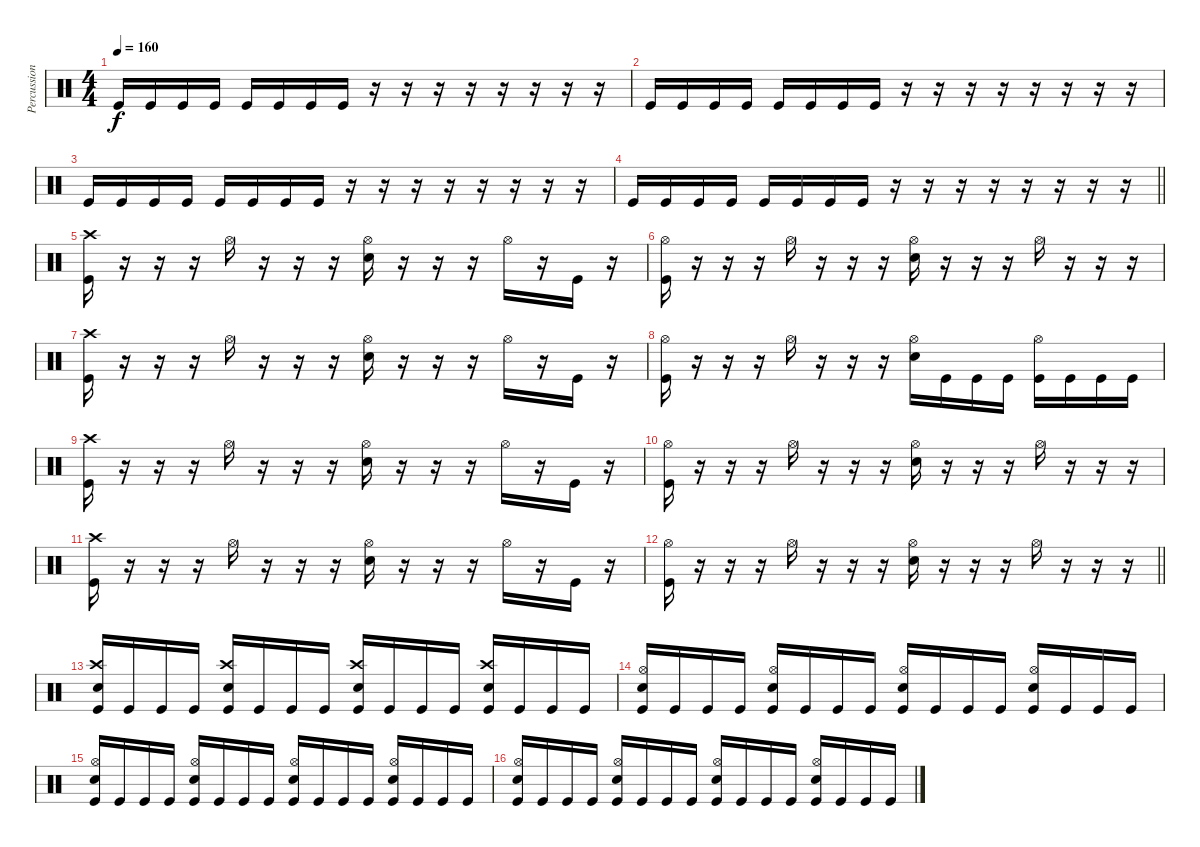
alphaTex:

\track ("Percussion" "Percussion") {instrument percussion}
\staff {score}
\articulation defaults
\ts (4 4)
\tempo 160
\clef neutral
\ks c "Kick (hit)".16{dy f} "Kick (hit)".16 "Kick (hit)".16 "Kick (hit)".16 "Kick (hit)".16 "Kick (hit)".16 "Kick (hit)".16 "Kick (hit)".16
r.16 r.16 r.16 r.16 r.16 r.16 r.16 r.16 |
"Kick (hit)".16 "Kick (hit)".16 "Kick (hit)".16 "Kick (hit)".16 "Kick (hit)".16 "Kick (hit)".16 "Kick (hit)".16 "Kick (hit)".16 r.16 r.16 r.16 r.16 r.16 r.16 r.16 r.16 |
"Kick (hit)".16 "Kick (hit)".16 "Kick (hit)".16 "Kick (hit)".16 "Kick (hit)".16 "Kick (hit)".16 "Kick (hit)".16 "Kick (hit)".16 r.16 r.16 r.16 r.16 r.16 r.16 r.16 r.16 |
\barLineRight lightlight "Kick (hit)".16 "Kick (hit)".16 "Kick (hit)".16 "Kick (hit)".16 "Kick (hit)".16 "Kick (hit)".16 "Kick (hit)".16 "Kick (hit)".16
r.16 r.16 r.16 r.16 r.16 r.16 r.16 r.16 |
\section ("" "")
("Crash high (hit)" "Kick (hit)").16 r.16 r.16 r.16 "Hi-Hat (open)".16 r.16 r.16 r.16 ("Hi-Hat (open)" "Snare (hit) 2").16 r.16 r.16 r.16 "Hi-Hat (open)".16 r.16 "Kick (hit)".16 r.16 |
("Hi-Hat (open)" "Kick (hit)").16 r.16 r.16 r.16 "Hi-Hat (open)".16 r.16 r.16 r.16 ("Hi-Hat (open)" "Snare (hit) 2").16 r.16 r.16 r.16 "Hi-Hat (open)".16 r.16 r.16 r.16 |
("Crash high (hit)" "Kick (hit)").16 r.16 r.16 r.16 "Hi-Hat (open)".16 r.16 r.16 r.16 ("Hi-Hat (open)" "Snare (hit) 2").16 r.16 r.16 r.16 "Hi-Hat (open)".16 r.16 "Kick (hit)".16 r.16 |
("Hi-Hat (open)" "Kick (hit)").16 r.16 r.16 r.16 "Hi-Hat (open)".16 r.16 r.16 r.16 ("Hi-Hat (open)" "Snare (hit) 2").16 "Kick (hit)".16 "Kick (hit)".16 "Kick (hit)".16 ("Hi-Hat (open)" "Kick (hit)").16 "Kick (hit)".16 "Kick (hit)".16 "Kick (hit)".16 |
("Crash high (hit)" "Kick (hit)").16 r.16 r.16 r.16 "Hi-Hat (open)".16 r.16 r.16 r.16 ("Hi-Hat (open)" "Snare (hit) 2").16 r.16 r.16 r.16 "Hi-Hat (open)".16 r.16 "Kick (hit)".16 r.16 |
("Hi-Hat (open)" "Kick (hit)").16 r.16 r.16 r.16 "Hi-Hat (open)".16 r.16 r.16 r.16 ("Hi-Hat (open)" "Snare (hit) 2").16 r.16 r.16 r.16 "Hi-Hat (open)".16 r.16 r.16 r.16 |
("Crash high (hit)" "Kick (hit)").16 r.16 r.16 r.16 "Hi-Hat (open)".16 r.16 r.16 r.16 ("Hi-Hat (open)" "Snare (hit) 2").16 r.16 r.16 r.16 "Hi-Hat (open)".16 r.16 "Kick (hit)".16 r.16 |
\barLineRight lightlight
("Hi-Hat (open)" "Kick (hit)").16 r.16 r.16 r.16 "Hi-Hat (open)".16 r.16 r.16 r.16 ("Hi-Hat (open)" "Snare (hit) 2").16 r.16 r.16 r.16 "Hi-Hat (open)".16 r.16 r.16 r.16 |
\section ("" "")
("Kick (hit)" "Snare (hit) 2" "Crash high (hit)").16 "Kick (hit)".16 "Kick (hit)".16 "Kick (hit)".16 ("Kick (hit)" "Snare (hit) 2" "Crash high (hit)").16 "Kick (hit)".16 "Kick (hit)".16 "Kick (hit)".16 ("Kick (hit)" "Snare (hit) 2" "Crash high (hit)").16 "Kick (hit)".16 "Kick (hit)".16 "Kick (hit)".16 ("Kick (hit)" "Snare (hit) 2" "Crash high (hit)").16 "Kick (hit)".16 "Kick (hit)".16 "Kick (hit)".16 |
("Kick (hit)" "Snare (hit) 2" "Hi-Hat (open)").16 "Kick (hit)".16 "Kick (hit)".16 "Kick (hit)".16 ("Kick (hit)" "Snare (hit) 2" "Hi-Hat (open)").16 "Kick (hit)".16 "Kick (hit)".16 "Kick (hit)".16 ("Kick (hit)" "Snare (hit) 2" "Hi-Hat (open)").16 "Kick (hit)".16 "Kick (hit)".16 "Kick (hit)".16 ("Kick (hit)" "Snare (hit) 2" "Hi-Hat (open)").16 "Kick (hit)".16 "Kick (hit)".16 "Kick (hit)".16 |
("Kick (hit)" "Snare (hit) 2" "Hi-Hat (open)").16 "Kick (hit)".16 "Kick (hit)".16 "Kick (hit)".16 ("Kick (hit)" "Snare (hit) 2" "Hi-Hat (open)").16 "Kick (hit)".16 "Kick (hit)".16 "Kick (hit)".16 ("Kick (hit)" "Snare (hit) 2" "Hi-Hat (open)").16 "Kick (hit)".16 "Kick (hit)".16 "Kick (hit)".16 ("Kick (hit)" "Snare (hit) 2" "Hi-Hat (open)").16 "Kick (hit)".16 "Kick (hit)".16 "Kick (hit)".16 |
("Kick (hit)" "Snare (hit) 2" "Hi-Hat (open)").16 "Kick (hit)".16 "Kick (hit)".16 "Kick (hit)".16 ("Kick (hit)" "Snare (hit) 2" "Hi-Hat (open)").16 "Kick (hit)".16 "Kick (hit)".16 "Kick (hit)".16 ("Kick (hit)" "Snare (hit) 2" "Hi-Hat (open)").16 "Kick (hit)".16 "Kick (hit)".16 "Kick (hit)".16 ("Kick (hit)" "Snare (hit) 2" "Hi-Hat (open)").16 "Kick (hit)".16 "Kick (hit)".16 "Kick (hit)".16
